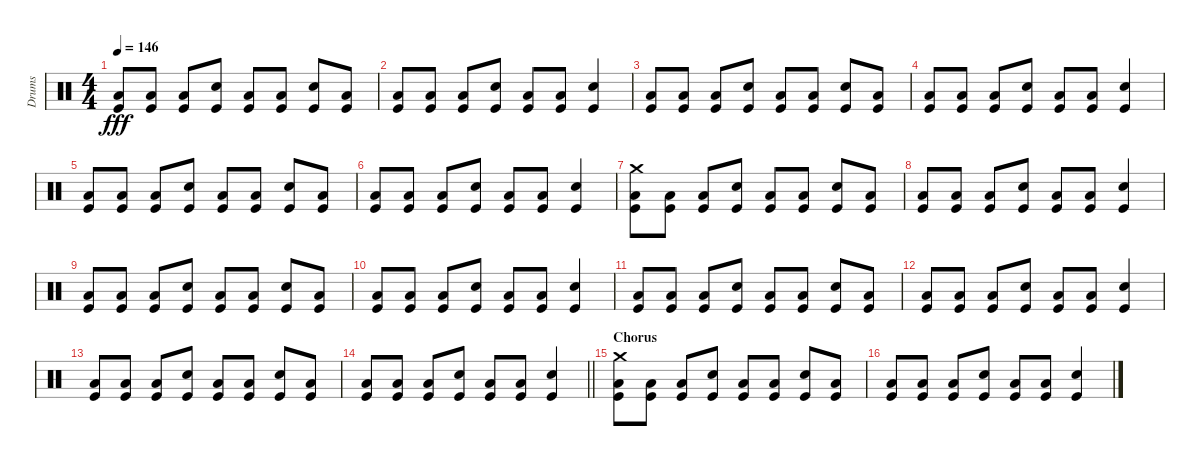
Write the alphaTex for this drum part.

\track ("Drums" "Drums") {instrument percussion}
\staff {score}
\articulation defaults
\ts (4 4)
\tempo 146
\clef neutral
\ks c
("Low Floor Tom (hit)" "Kick (hit)").8{dy fff} ("Low Floor Tom (hit)" "Kick (hit)").8 ("Low Floor Tom (hit)" "Kick (hit)").8 ("Electric Snare (hit)" "Kick (hit)").8 ("Low Floor Tom (hit)" "Kick (hit)").8 ("Low Floor Tom (hit)" "Kick (hit)").8 ("Electric Snare (hit)" "Kick (hit)").8 ("Low Floor Tom (hit)" "Kick (hit)").8 |
("Low Floor Tom (hit)" "Kick (hit)").8 ("Low Floor Tom (hit)" "Kick (hit)").8 ("Low Floor Tom (hit)" "Kick (hit)").8 ("Electric Snare (hit)" "Kick (hit)").8 ("Low Floor Tom (hit)" "Kick (hit)").8 ("Low Floor Tom (hit)" "Kick (hit)").8 ("Electric Snare (hit)" "Kick (hit)").4 |
("Low Floor Tom (hit)" "Kick (hit)").8 ("Low Floor Tom (hit)" "Kick (hit)").8 ("Low Floor Tom (hit)" "Kick (hit)").8 ("Electric Snare (hit)" "Kick (hit)").8 ("Low Floor Tom (hit)" "Kick (hit)").8 ("Low Floor Tom (hit)" "Kick (hit)").8 ("Electric Snare (hit)" "Kick (hit)").8 ("Low Floor Tom (hit)" "Kick (hit)").8 |
("Low Floor Tom (hit)" "Kick (hit)").8 ("Low Floor Tom (hit)" "Kick (hit)").8 ("Low Floor Tom (hit)" "Kick (hit)").8 ("Electric Snare (hit)" "Kick (hit)").8 ("Low Floor Tom (hit)" "Kick (hit)").8 ("Low Floor Tom (hit)" "Kick (hit)").8 ("Electric Snare (hit)" "Kick (hit)").4 |
("Low Floor Tom (hit)" "Kick (hit)").8 ("Low Floor Tom (hit)" "Kick (hit)").8 ("Low Floor Tom (hit)" "Kick (hit)").8 ("Electric Snare (hit)" "Kick (hit)").8 ("Low Floor Tom (hit)" "Kick (hit)").8 ("Low Floor Tom (hit)" "Kick (hit)").8 ("Electric Snare (hit)" "Kick (hit)").8 ("Low Floor Tom (hit)" "Kick (hit)").8 |
("Low Floor Tom (hit)" "Kick (hit)").8 ("Low Floor Tom (hit)" "Kick (hit)").8 ("Low Floor Tom (hit)" "Kick (hit)").8 ("Electric Snare (hit)" "Kick (hit)").8 ("Low Floor Tom (hit)" "Kick (hit)").8 ("Low Floor Tom (hit)" "Kick (hit)").8 ("Electric Snare (hit)" "Kick (hit)").4 |
("Crash medium (hit)" "Low Floor Tom (hit)" "Kick (hit)").8 ("Low Floor Tom (hit)" "Kick (hit)").8 ("Low Floor Tom (hit)" "Kick (hit)").8 ("Electric Snare (hit)" "Kick (hit)").8 ("Low Floor Tom (hit)" "Kick (hit)").8 ("Low Floor Tom (hit)" "Kick (hit)").8 ("Electric Snare (hit)" "Kick (hit)").8 ("Low Floor Tom (hit)" "Kick (hit)").8 |
("Low Floor Tom (hit)" "Kick (hit)").8 ("Low Floor Tom (hit)" "Kick (hit)").8 ("Low Floor Tom (hit)" "Kick (hit)").8 ("Electric Snare (hit)" "Kick (hit)").8 ("Low Floor Tom (hit)" "Kick (hit)").8 ("Low Floor Tom (hit)" "Kick (hit)").8 ("Electric Snare (hit)" "Kick (hit)").4 |
("Low Floor Tom (hit)" "Kick (hit)").8 ("Low Floor Tom (hit)" "Kick (hit)").8 ("Low Floor Tom (hit)" "Kick (hit)").8 ("Electric Snare (hit)" "Kick (hit)").8 ("Low Floor Tom (hit)" "Kick (hit)").8 ("Low Floor Tom (hit)" "Kick (hit)").8 ("Electric Snare (hit)" "Kick (hit)").8 ("Low Floor Tom (hit)" "Kick (hit)").8 |
("Low Floor Tom (hit)" "Kick (hit)").8 ("Low Floor Tom (hit)" "Kick (hit)").8 ("Low Floor Tom (hit)" "Kick (hit)").8 ("Electric Snare (hit)" "Kick (hit)").8 ("Low Floor Tom (hit)" "Kick (hit)").8 ("Low Floor Tom (hit)" "Kick (hit)").8 ("Electric Snare (hit)" "Kick (hit)").4 |
("Low Floor Tom (hit)" "Kick (hit)").8 ("Low Floor Tom (hit)" "Kick (hit)").8 ("Low Floor Tom (hit)" "Kick (hit)").8 ("Electric Snare (hit)" "Kick (hit)").8 ("Low Floor Tom (hit)" "Kick (hit)").8 ("Low Floor Tom (hit)" "Kick (hit)").8 ("Electric Snare (hit)" "Kick (hit)").8 ("Low Floor Tom (hit)" "Kick (hit)").8 |
("Low Floor Tom (hit)" "Kick (hit)").8 ("Low Floor Tom (hit)" "Kick (hit)").8 ("Low Floor Tom (hit)" "Kick (hit)").8 ("Electric Snare (hit)" "Kick (hit)").8 ("Low Floor Tom (hit)" "Kick (hit)").8 ("Low Floor Tom (hit)" "Kick (hit)").8 ("Electric Snare (hit)" "Kick (hit)").4 |
("Low Floor Tom (hit)" "Kick (hit)").8 ("Low Floor Tom (hit)" "Kick (hit)").8 ("Low Floor Tom (hit)" "Kick (hit)").8 ("Electric Snare (hit)" "Kick (hit)").8 ("Low Floor Tom (hit)" "Kick (hit)").8 ("Low Floor Tom (hit)" "Kick (hit)").8 ("Electric Snare (hit)" "Kick (hit)").8 ("Low Floor Tom (hit)" "Kick (hit)").8 |
\barLineRight lightlight
("Low Floor Tom (hit)" "Kick (hit)").8 ("Low Floor Tom (hit)" "Kick (hit)").8 ("Low Floor Tom (hit)" "Kick (hit)").8 ("Electric Snare (hit)" "Kick (hit)").8 ("Low Floor Tom (hit)" "Kick (hit)").8 ("Low Floor Tom (hit)" "Kick (hit)").8 ("Electric Snare (hit)" "Kick (hit)").4 |
\section ("" "Chorus")
("Crash medium (hit)" "Low Floor Tom (hit)" "Kick (hit)").8 ("Low Floor Tom (hit)" "Kick (hit)").8 ("Low Floor Tom (hit)" "Kick (hit)").8 ("Electric Snare (hit)" "Kick (hit)").8 ("Low Floor Tom (hit)" "Kick (hit)").8 ("Low Floor Tom (hit)" "Kick (hit)").8 ("Electric Snare (hit)" "Kick (hit)").8 ("Low Floor Tom (hit)" "Kick (hit)").8 |
("Low Floor Tom (hit)" "Kick (hit)").8 ("Low Floor Tom (hit)" "Kick (hit)").8 ("Low Floor Tom (hit)" "Kick (hit)").8 ("Electric Snare (hit)" "Kick (hit)").8 ("Low Floor Tom (hit)" "Kick (hit)").8 ("Low Floor Tom (hit)" "Kick (hit)").8 ("Electric Snare (hit)" "Kick (hit)").4
